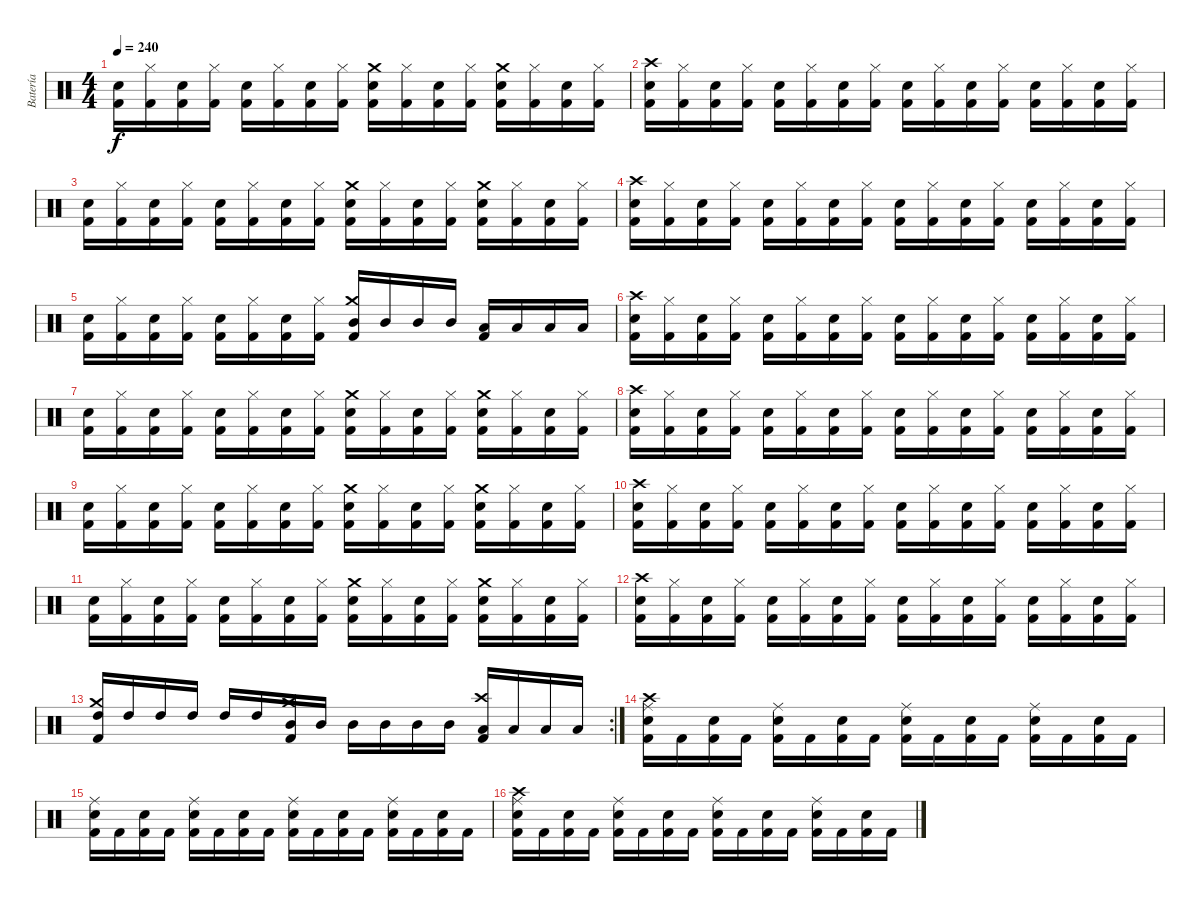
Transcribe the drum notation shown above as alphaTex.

\track ("Batería" "Batería") {instrument percussion}
\staff {score}
\articulation defaults
\ts (4 4)
\tempo 240
\clef neutral
\ks c
("Kick (hit) 2" "Electric Snare (hit)").16{dy f} ("Kick (hit) 2" "Hi-Hat (closed)").16 ("Kick (hit) 2" "Electric Snare (hit)").16 ("Kick (hit) 2" "Hi-Hat (closed)").16 ("Kick (hit) 2" "Electric Snare (hit)").16 ("Kick (hit) 2" "Hi-Hat (closed)").16 ("Kick (hit) 2" "Electric Snare (hit)").16 ("Kick (hit) 2" "Hi-Hat (closed)").16 ("Crash medium (hit)" "Kick (hit) 2" "Electric Snare (hit)").16 ("Kick (hit) 2" "Hi-Hat (closed)").16 ("Kick (hit) 2" "Electric Snare (hit)").16 ("Kick (hit) 2" "Hi-Hat (closed)").16 ("Crash medium (hit)" "Kick (hit) 2" "Electric Snare (hit)").16 ("Kick (hit) 2" "Hi-Hat (closed)").16 ("Kick (hit) 2" "Electric Snare (hit)").16 ("Kick (hit) 2" "Hi-Hat (closed)").16 |
("Crash high (hit)" "Kick (hit) 2" "Electric Snare (hit)").16 ("Kick (hit) 2" "Hi-Hat (closed)").16 ("Kick (hit) 2" "Electric Snare (hit)").16 ("Kick (hit) 2" "Hi-Hat (closed)").16 ("Kick (hit) 2" "Electric Snare (hit)").16 ("Kick (hit) 2" "Hi-Hat (closed)").16 ("Kick (hit) 2" "Electric Snare (hit)").16 ("Kick (hit) 2" "Hi-Hat (closed)").16 ("Kick (hit) 2" "Electric Snare (hit)").16 ("Kick (hit) 2" "Hi-Hat (closed)").16 ("Kick (hit) 2" "Electric Snare (hit)").16 ("Kick (hit) 2" "Hi-Hat (closed)").16 ("Kick (hit) 2" "Electric Snare (hit)").16 ("Kick (hit) 2" "Hi-Hat (closed)").16 ("Kick (hit) 2" "Electric Snare (hit)").16 ("Kick (hit) 2" "Hi-Hat (closed)").16 |
("Kick (hit) 2" "Electric Snare (hit)").16 ("Kick (hit) 2" "Hi-Hat (closed)").16 ("Kick (hit) 2" "Electric Snare (hit)").16 ("Kick (hit) 2" "Hi-Hat (closed)").16 ("Kick (hit) 2" "Electric Snare (hit)").16 ("Kick (hit) 2" "Hi-Hat (closed)").16 ("Kick (hit) 2" "Electric Snare (hit)").16 ("Kick (hit) 2" "Hi-Hat (closed)").16 ("Crash medium (hit)" "Kick (hit) 2" "Electric Snare (hit)").16 ("Kick (hit) 2" "Hi-Hat (closed)").16 ("Kick (hit) 2" "Electric Snare (hit)").16 ("Kick (hit) 2" "Hi-Hat (closed)").16 ("Crash medium (hit)" "Kick (hit) 2" "Electric Snare (hit)").16 ("Kick (hit) 2" "Hi-Hat (closed)").16 ("Kick (hit) 2" "Electric Snare (hit)").16 ("Kick (hit) 2" "Hi-Hat (closed)").16 |
("Crash high (hit)" "Kick (hit) 2" "Electric Snare (hit)").16 ("Kick (hit) 2" "Hi-Hat (closed)").16 ("Kick (hit) 2" "Electric Snare (hit)").16 ("Kick (hit) 2" "Hi-Hat (closed)").16 ("Kick (hit) 2" "Electric Snare (hit)").16 ("Kick (hit) 2" "Hi-Hat (closed)").16 ("Kick (hit) 2" "Electric Snare (hit)").16 ("Kick (hit) 2" "Hi-Hat (closed)").16 ("Kick (hit) 2" "Electric Snare (hit)").16 ("Kick (hit) 2" "Hi-Hat (closed)").16 ("Kick (hit) 2" "Electric Snare (hit)").16 ("Kick (hit) 2" "Hi-Hat (closed)").16 ("Kick (hit) 2" "Electric Snare (hit)").16 ("Kick (hit) 2" "Hi-Hat (closed)").16 ("Kick (hit) 2" "Electric Snare (hit)").16 ("Kick (hit) 2" "Hi-Hat (closed)").16 |
("Kick (hit) 2" "Electric Snare (hit)").16 ("Kick (hit) 2" "Hi-Hat (closed)").16 ("Kick (hit) 2" "Electric Snare (hit)").16 ("Kick (hit) 2" "Hi-Hat (closed)").16 ("Kick (hit) 2" "Electric Snare (hit)").16 ("Kick (hit) 2" "Hi-Hat (closed)").16 ("Kick (hit) 2" "Electric Snare (hit)").16 ("Kick (hit) 2" "Hi-Hat (closed)").16 ("Crash medium (hit)" "Kick (hit) 2" "Mid Tom (hit)").16 "Mid Tom (hit)".16 "Mid Tom (hit)".16 "Mid Tom (hit)".16 ("Kick (hit) 2" "Low Tom (hit)").16 "Low Tom (hit)".16 "Low Tom (hit)".16 "Low Tom (hit)".16 |
("Crash high (hit)" "Kick (hit) 2" "Electric Snare (hit)").16 ("Kick (hit) 2" "Hi-Hat (closed)").16 ("Kick (hit) 2" "Electric Snare (hit)").16 ("Kick (hit) 2" "Hi-Hat (closed)").16 ("Kick (hit) 2" "Electric Snare (hit)").16 ("Kick (hit) 2" "Hi-Hat (closed)").16 ("Kick (hit) 2" "Electric Snare (hit)").16 ("Kick (hit) 2" "Hi-Hat (closed)").16 ("Kick (hit) 2" "Electric Snare (hit)").16 ("Kick (hit) 2" "Hi-Hat (closed)").16 ("Kick (hit) 2" "Electric Snare (hit)").16 ("Kick (hit) 2" "Hi-Hat (closed)").16 ("Kick (hit) 2" "Electric Snare (hit)").16 ("Kick (hit) 2" "Hi-Hat (closed)").16 ("Kick (hit) 2" "Electric Snare (hit)").16 ("Kick (hit) 2" "Hi-Hat (closed)").16 |
("Kick (hit) 2" "Electric Snare (hit)").16 ("Kick (hit) 2" "Hi-Hat (closed)").16 ("Kick (hit) 2" "Electric Snare (hit)").16 ("Kick (hit) 2" "Hi-Hat (closed)").16 ("Kick (hit) 2" "Electric Snare (hit)").16 ("Kick (hit) 2" "Hi-Hat (closed)").16 ("Kick (hit) 2" "Electric Snare (hit)").16 ("Kick (hit) 2" "Hi-Hat (closed)").16 ("Crash medium (hit)" "Kick (hit) 2" "Electric Snare (hit)").16 ("Kick (hit) 2" "Hi-Hat (closed)").16 ("Kick (hit) 2" "Electric Snare (hit)").16 ("Kick (hit) 2" "Hi-Hat (closed)").16 ("Crash medium (hit)" "Kick (hit) 2" "Electric Snare (hit)").16 ("Kick (hit) 2" "Hi-Hat (closed)").16 ("Kick (hit) 2" "Electric Snare (hit)").16 ("Kick (hit) 2" "Hi-Hat (closed)").16 |
("Crash high (hit)" "Kick (hit) 2" "Electric Snare (hit)").16 ("Kick (hit) 2" "Hi-Hat (closed)").16 ("Kick (hit) 2" "Electric Snare (hit)").16 ("Kick (hit) 2" "Hi-Hat (closed)").16 ("Kick (hit) 2" "Electric Snare (hit)").16 ("Kick (hit) 2" "Hi-Hat (closed)").16 ("Kick (hit) 2" "Electric Snare (hit)").16 ("Kick (hit) 2" "Hi-Hat (closed)").16 ("Kick (hit) 2" "Electric Snare (hit)").16 ("Kick (hit) 2" "Hi-Hat (closed)").16 ("Kick (hit) 2" "Electric Snare (hit)").16 ("Kick (hit) 2" "Hi-Hat (closed)").16 ("Kick (hit) 2" "Electric Snare (hit)").16 ("Kick (hit) 2" "Hi-Hat (closed)").16 ("Kick (hit) 2" "Electric Snare (hit)").16 ("Kick (hit) 2" "Hi-Hat (closed)").16 |
("Kick (hit) 2" "Electric Snare (hit)").16 ("Kick (hit) 2" "Hi-Hat (closed)").16 ("Kick (hit) 2" "Electric Snare (hit)").16 ("Kick (hit) 2" "Hi-Hat (closed)").16 ("Kick (hit) 2" "Electric Snare (hit)").16 ("Kick (hit) 2" "Hi-Hat (closed)").16 ("Kick (hit) 2" "Electric Snare (hit)").16 ("Kick (hit) 2" "Hi-Hat (closed)").16 ("Crash medium (hit)" "Kick (hit) 2" "Electric Snare (hit)").16 ("Kick (hit) 2" "Hi-Hat (closed)").16 ("Kick (hit) 2" "Electric Snare (hit)").16 ("Kick (hit) 2" "Hi-Hat (closed)").16 ("Crash medium (hit)" "Kick (hit) 2" "Electric Snare (hit)").16 ("Kick (hit) 2" "Hi-Hat (closed)").16 ("Kick (hit) 2" "Electric Snare (hit)").16 ("Kick (hit) 2" "Hi-Hat (closed)").16 |
("Crash high (hit)" "Kick (hit) 2" "Electric Snare (hit)").16 ("Kick (hit) 2" "Hi-Hat (closed)").16 ("Kick (hit) 2" "Electric Snare (hit)").16 ("Kick (hit) 2" "Hi-Hat (closed)").16 ("Kick (hit) 2" "Electric Snare (hit)").16 ("Kick (hit) 2" "Hi-Hat (closed)").16 ("Kick (hit) 2" "Electric Snare (hit)").16 ("Kick (hit) 2" "Hi-Hat (closed)").16 ("Kick (hit) 2" "Electric Snare (hit)").16 ("Kick (hit) 2" "Hi-Hat (closed)").16 ("Kick (hit) 2" "Electric Snare (hit)").16 ("Kick (hit) 2" "Hi-Hat (closed)").16 ("Kick (hit) 2" "Electric Snare (hit)").16 ("Kick (hit) 2" "Hi-Hat (closed)").16 ("Kick (hit) 2" "Electric Snare (hit)").16 ("Kick (hit) 2" "Hi-Hat (closed)").16 |
("Kick (hit) 2" "Electric Snare (hit)").16 ("Kick (hit) 2" "Hi-Hat (closed)").16 ("Kick (hit) 2" "Electric Snare (hit)").16 ("Kick (hit) 2" "Hi-Hat (closed)").16 ("Kick (hit) 2" "Electric Snare (hit)").16 ("Kick (hit) 2" "Hi-Hat (closed)").16 ("Kick (hit) 2" "Electric Snare (hit)").16 ("Kick (hit) 2" "Hi-Hat (closed)").16 ("Crash medium (hit)" "Kick (hit) 2" "Electric Snare (hit)").16 ("Kick (hit) 2" "Hi-Hat (closed)").16 ("Kick (hit) 2" "Electric Snare (hit)").16 ("Kick (hit) 2" "Hi-Hat (closed)").16 ("Crash medium (hit)" "Kick (hit) 2" "Electric Snare (hit)").16 ("Kick (hit) 2" "Hi-Hat (closed)").16 ("Kick (hit) 2" "Electric Snare (hit)").16 ("Kick (hit) 2" "Hi-Hat (closed)").16 |
("Crash high (hit)" "Kick (hit) 2" "Electric Snare (hit)").16 ("Kick (hit) 2" "Hi-Hat (closed)").16 ("Kick (hit) 2" "Electric Snare (hit)").16 ("Kick (hit) 2" "Hi-Hat (closed)").16 ("Kick (hit) 2" "Electric Snare (hit)").16 ("Kick (hit) 2" "Hi-Hat (closed)").16 ("Kick (hit) 2" "Electric Snare (hit)").16 ("Kick (hit) 2" "Hi-Hat (closed)").16 ("Kick (hit) 2" "Electric Snare (hit)").16 ("Kick (hit) 2" "Hi-Hat (closed)").16 ("Kick (hit) 2" "Electric Snare (hit)").16 ("Kick (hit) 2" "Hi-Hat (closed)").16 ("Kick (hit) 2" "Electric Snare (hit)").16 ("Kick (hit) 2" "Hi-Hat (closed)").16 ("Kick (hit) 2" "Electric Snare (hit)").16 ("Kick (hit) 2" "Hi-Hat (closed)").16 |
\rc 2
("Crash medium (hit)" "Kick (hit) 2" "High Tom (hit)").16 "High Tom (hit)".16 "High Tom (hit)".16 "High Tom (hit)".16 "High Tom (hit)".16 "High Tom (hit)".16 ("Crash medium (hit)" "Kick (hit) 2" "Mid Tom (hit)").16 "Mid Tom (hit)".16 "Mid Tom (hit)".16 "Mid Tom (hit)".16 "Mid Tom (hit)".16 "Mid Tom (hit)".16 ("Crash high (hit)" "Kick (hit) 2" "Low Tom (hit)").16 "Low Tom (hit)".16 "Low Tom (hit)".16 "Low Tom (hit)".16 |
("Crash high (hit)" "Ride (middle)" "Kick (hit) 2" "Electric Snare (hit)").16 "Kick (hit) 2".16 ("Kick (hit) 2" "Electric Snare (hit)").16 "Kick (hit) 2".16 ("Ride (middle)" "Kick (hit) 2" "Electric Snare (hit)").16 "Kick (hit) 2".16 ("Kick (hit) 2" "Electric Snare (hit)").16 "Kick (hit) 2".16 ("Ride (middle)" "Kick (hit) 2" "Electric Snare (hit)").16 "Kick (hit) 2".16 ("Kick (hit) 2" "Electric Snare (hit)").16 "Kick (hit) 2".16 ("Ride (middle)" "Kick (hit) 2" "Electric Snare (hit)").16 "Kick (hit) 2".16 ("Kick (hit) 2" "Electric Snare (hit)").16 "Kick (hit) 2".16 |
("Ride (middle)" "Kick (hit) 2" "Electric Snare (hit)").16 "Kick (hit) 2".16 ("Kick (hit) 2" "Electric Snare (hit)").16 "Kick (hit) 2".16 ("Ride (middle)" "Kick (hit) 2" "Electric Snare (hit)").16 "Kick (hit) 2".16 ("Kick (hit) 2" "Electric Snare (hit)").16 "Kick (hit) 2".16 ("Ride (middle)" "Kick (hit) 2" "Electric Snare (hit)").16 "Kick (hit) 2".16 ("Kick (hit) 2" "Electric Snare (hit)").16 "Kick (hit) 2".16 ("Ride (middle)" "Kick (hit) 2" "Electric Snare (hit)").16 "Kick (hit) 2".16 ("Kick (hit) 2" "Electric Snare (hit)").16 "Kick (hit) 2".16 |
("Crash high (hit)" "Ride (middle)" "Kick (hit) 2" "Electric Snare (hit)").16 "Kick (hit) 2".16 ("Kick (hit) 2" "Electric Snare (hit)").16 "Kick (hit) 2".16 ("Ride (middle)" "Kick (hit) 2" "Electric Snare (hit)").16 "Kick (hit) 2".16 ("Kick (hit) 2" "Electric Snare (hit)").16 "Kick (hit) 2".16 ("Ride (middle)" "Kick (hit) 2" "Electric Snare (hit)").16 "Kick (hit) 2".16 ("Kick (hit) 2" "Electric Snare (hit)").16 "Kick (hit) 2".16 ("Ride (middle)" "Kick (hit) 2" "Electric Snare (hit)").16 "Kick (hit) 2".16 ("Kick (hit) 2" "Electric Snare (hit)").16 "Kick (hit) 2".16
